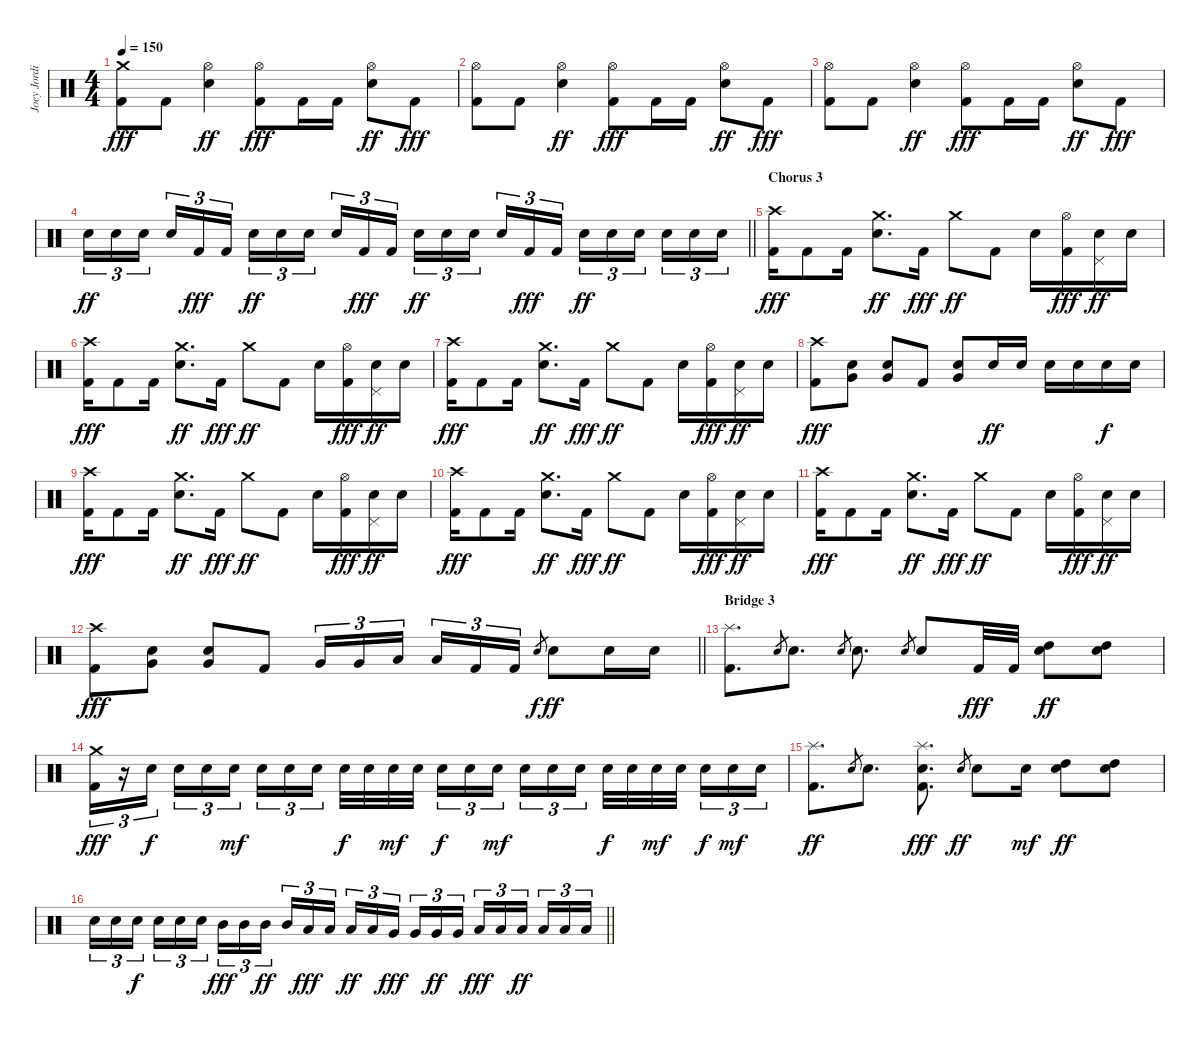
\track ("Joey Jordison" "Joey Jordi") {instrument percussion}
\staff {score}
\articulation defaults
\ts (4 4)
\tempo 150
\clef neutral
\ks c
("Crash medium (hit)" "Kick (hit) 2").8{dy fff} "Kick (hit) 2".8 ("Hi-Hat (open)" "Electric Snare (hit)").4{dy ff} ("Hi-Hat (open)" "Kick (hit) 2").8{dy fff} "Kick (hit) 2".16 "Kick (hit) 2".16 ("Hi-Hat (open)" "Electric Snare (hit)").8{dy ff} "Kick (hit) 2".8{dy fff} |
("Hi-Hat (open)" "Kick (hit) 2").8 "Kick (hit) 2".8 ("Hi-Hat (open)" "Electric Snare (hit)").4{dy ff} ("Hi-Hat (open)" "Kick (hit) 2").8{dy fff} "Kick (hit) 2".16 "Kick (hit) 2".16 ("Hi-Hat (open)" "Electric Snare (hit)").8{dy ff} "Kick (hit) 2".8{dy fff} |
("Hi-Hat (open)" "Kick (hit) 2").8 "Kick (hit) 2".8 ("Hi-Hat (open)" "Electric Snare (hit)").4{dy ff} ("Hi-Hat (open)" "Kick (hit) 2").8{dy fff} "Kick (hit) 2".16 "Kick (hit) 2".16 ("Hi-Hat (open)" "Electric Snare (hit)").8{dy ff} "Kick (hit) 2".8{dy fff} |
\barLineRight lightlight "Electric Snare (hit)".16{tu (3 2) dy ff} "Electric Snare (hit)".16{tu (3 2)} "Electric Snare (hit)".16{tu (3 2) beam splitsecondary} "Electric Snare (hit)".16{tu (3 2)} "Kick (hit) 2".16{tu (3 2) dy fff} "Kick (hit) 2".16{tu (3 2)} "Electric Snare (hit)".16{tu (3 2) dy ff} "Electric Snare (hit)".16{tu (3 2)} "Electric Snare (hit)".16{tu (3 2) beam splitsecondary} "Electric Snare (hit)".16{tu (3 2)} "Kick (hit) 2".16{tu (3 2) dy fff} "Kick (hit) 2".16{tu (3 2)} "Electric Snare (hit)".16{tu (3 2) dy ff} "Electric Snare (hit)".16{tu (3 2)} "Electric Snare (hit)".16{tu (3 2) beam splitsecondary} "Electric Snare (hit)".16{tu (3 2)} "Kick (hit) 2".16{tu (3 2) dy fff} "Kick (hit) 2".16{tu (3 2)} "Electric Snare (hit)".16{tu (3 2) dy ff} "Electric Snare (hit)".16{tu (3 2)} "Electric Snare (hit)".16{tu (3 2) beam splitsecondary} "Electric Snare (hit)".16{tu (3 2)} "Electric Snare (hit)".16{tu (3 2)} "Electric Snare (hit)".16{tu (3 2)}
|
\section ("" "Chorus 3")
("Crash high (hit)" "Kick (hit) 2").16{dy fff} "Kick (hit) 2".8 "Kick (hit) 2".16 ("Crash medium (hit)" "Electric Snare (hit)").8{d dy ff} "Kick (hit) 2".16{dy fff} "Crash medium (hit)".8{dy ff} "Kick (hit) 2".8 "Electric Snare (hit)".16 ("Hi-Hat (open)" "Kick (hit) 2").16{dy fff} ("Electric Snare (hit)" "Pedal Hi-Hat (hit)").16{dy ff} "Electric Snare (hit)".16 |
("Crash high (hit)" "Kick (hit) 2").16{dy fff} "Kick (hit) 2".8 "Kick (hit) 2".16 ("Crash medium (hit)" "Electric Snare (hit)").8{d dy ff} "Kick (hit) 2".16{dy fff} "Crash medium (hit)".8{dy ff} "Kick (hit) 2".8 "Electric Snare (hit)".16 ("Hi-Hat (open)" "Kick (hit) 2").16{dy fff} ("Electric Snare (hit)" "Pedal Hi-Hat (hit)").16{dy ff} "Electric Snare (hit)".16 |
("Crash high (hit)" "Kick (hit) 2").16{dy fff} "Kick (hit) 2".8 "Kick (hit) 2".16 ("Crash medium (hit)" "Electric Snare (hit)").8{d dy ff} "Kick (hit) 2".16{dy fff} "Crash medium (hit)".8{dy ff} "Kick (hit) 2".8 "Electric Snare (hit)".16 ("Hi-Hat (open)" "Kick (hit) 2").16{dy fff} ("Electric Snare (hit)" "Pedal Hi-Hat (hit)").16{dy ff} "Electric Snare (hit)".16 |
("Crash high (hit)" "Kick (hit) 2").8{dy fff} ("Electric Snare (hit)" "Very Low Tom (hit)").8 ("Electric Snare (hit)" "Very Low Tom (hit)").8 "Kick (hit) 2".8 ("Electric Snare (hit)" "Very Low Tom (hit)").8 "Electric Snare (hit)".16{dy ff} "Electric Snare (hit)".16 "Electric Snare (hit)".16 "Electric Snare (hit)".16 "Electric Snare (hit)".16{dy f} "Electric Snare (hit)".16 |
("Crash high (hit)" "Kick (hit) 2").16{dy fff} "Kick (hit) 2".8 "Kick (hit) 2".16 ("Crash medium (hit)" "Electric Snare (hit)").8{d dy ff} "Kick (hit) 2".16{dy fff} "Crash medium (hit)".8{dy ff} "Kick (hit) 2".8 "Electric Snare (hit)".16 ("Hi-Hat (open)" "Kick (hit) 2").16{dy fff} ("Electric Snare (hit)" "Pedal Hi-Hat (hit)").16{dy ff} "Electric Snare (hit)".16 |
("Crash high (hit)" "Kick (hit) 2").16{dy fff} "Kick (hit) 2".8 "Kick (hit) 2".16 ("Crash medium (hit)" "Electric Snare (hit)").8{d dy ff} "Kick (hit) 2".16{dy fff} "Crash medium (hit)".8{dy ff} "Kick (hit) 2".8 "Electric Snare (hit)".16 ("Hi-Hat (open)" "Kick (hit) 2").16{dy fff} ("Electric Snare (hit)" "Pedal Hi-Hat (hit)").16{dy ff} "Electric Snare (hit)".16 |
("Crash high (hit)" "Kick (hit) 2").16{dy fff} "Kick (hit) 2".8 "Kick (hit) 2".16 ("Crash medium (hit)" "Electric Snare (hit)").8{d dy ff} "Kick (hit) 2".16{dy fff} "Crash medium (hit)".8{dy ff} "Kick (hit) 2".8 "Electric Snare (hit)".16 ("Hi-Hat (open)" "Kick (hit) 2").16{dy fff} ("Electric Snare (hit)" "Pedal Hi-Hat (hit)").16{dy ff} "Electric Snare (hit)".16 |
\barLineRight lightlight
("Crash high (hit)" "Kick (hit) 2").8{dy fff} ("Electric Snare (hit)" "Very Low Tom (hit)").8 ("Electric Snare (hit)" "Very Low Tom (hit)").8 "Kick (hit) 2".8 "Very Low Tom (hit)".16{tu (3 2)} "Very Low Tom (hit)".16{tu (3 2)} "Low Floor Tom (hit)".16{tu (3 2) beam splitsecondary} "Low Floor Tom (hit)".16{tu (3 2)} "Kick (hit) 2".16{tu (3 2)} "Kick (hit) 2".16{tu (3 2)} "Electric Snare (hit)".8{gr dy f} "Electric Snare (hit)".8{dy ff} "Electric Snare (hit)".16 "Electric Snare (hit)".16 |
\section ("" "Bridge 3")
("Splash (hit)" "Kick (hit) 2").8{d} "Electric Snare (hit)".8{gr} "Electric Snare (hit)".8{d} "Electric Snare (hit)".8{gr} "Electric Snare (hit)".8{d} "Electric Snare (hit)".8{gr} "Electric Snare (hit)".8 "Kick (hit) 2".32{dy fff} "Kick (hit) 2".32 ("High Tom (hit)" "Electric Snare (hit)").8{dy ff} ("High Tom (hit)" "Electric Snare (hit)").8 |
("Crash medium (hit)" "Kick (hit) 2").16{tu (3 2) dy fff} r.16{tu (3 2)} "Electric Snare (hit)".16{tu (3 2) dy f beam splitsecondary} "Electric Snare (hit)".16{tu (3 2)} "Electric Snare (hit)".16{tu (3 2)} "Electric Snare (hit)".16{tu (3 2) dy mf} "Electric Snare (hit)".16{tu (3 2)} "Electric Snare (hit)".16{tu (3 2)} "Electric Snare (hit)".16{tu (3 2) beam splitsecondary} "Electric Snare (hit)".32{dy f} "Electric Snare (hit)".32 "Electric Snare (hit)".32{dy mf} "Electric Snare (hit)".32 "Electric Snare (hit)".16{tu (3 2) dy f} "Electric Snare (hit)".16{tu (3 2)} "Electric Snare (hit)".16{tu (3 2) dy mf beam splitsecondary} "Electric Snare (hit)".16{tu (3 2)} "Electric Snare (hit)".16{tu (3 2)} "Electric Snare (hit)".16{tu (3 2)} "Electric Snare (hit)".32{dy f} "Electric Snare (hit)".32 "Electric Snare (hit)".32{dy mf} "Electric Snare (hit)".32{beam splitsecondary} "Electric Snare (hit)".16{tu (3 2) dy f} "Electric Snare (hit)".16{tu (3 2) dy mf} "Electric Snare (hit)".16{tu (3 2)} |
("Splash (hit)" "Kick (hit) 2").8{d dy ff} "Electric Snare (hit)".8{gr} "Electric Snare (hit)".8{d} ("Splash (hit)" "Electric Snare (hit)" "Kick (hit) 2").8{d dy fff} "Electric Snare (hit)".8{gr dy ff} "Electric Snare (hit)".8 "Electric Snare (hit)".16{dy mf} ("High Tom (hit)" "Electric Snare (hit)").8{dy ff} ("High Tom (hit)" "Electric Snare (hit)").8 |
\barLineRight lightlight "Electric Snare (hit)".16{tu (3 2)} "Electric Snare (hit)".16{tu (3 2)} "Electric Snare (hit)".16{tu (3 2) dy f beam splitsecondary} "Electric Snare (hit)".16{tu (3 2)} "Electric Snare (hit)".16{tu (3 2)} "Electric Snare (hit)".16{tu (3 2)} "Mid Tom (hit)".16{tu (3 2) dy fff} "Mid Tom (hit)".16{tu (3 2)} "Mid Tom (hit)".16{tu (3 2) dy ff beam splitsecondary} "Mid Tom (hit)".16{tu (3 2)} "Low Tom (hit)".16{tu (3 2) dy fff} "Low Tom (hit)".16{tu (3 2)} "Low Tom (hit)".16{tu (3 2) dy ff} "Low Tom (hit)".16{tu (3 2)} "Very Low Tom (hit)".16{tu (3 2) dy fff beam splitsecondary} "Very Low Tom (hit)".16{tu (3 2)} "Very Low Tom (hit)".16{tu (3 2) dy ff} "Very Low Tom (hit)".16{tu (3 2)} "Low Floor Tom (hit)".16{tu (3 2) dy fff} "Low Floor Tom (hit)".16{tu (3 2)} "Low Floor Tom (hit)".16{tu (3 2) dy ff beam splitsecondary} "Low Floor Tom (hit)".16{tu (3 2)} "Low Floor Tom (hit)".16{tu (3 2)} "Low Floor Tom (hit)".16{tu (3 2)}
